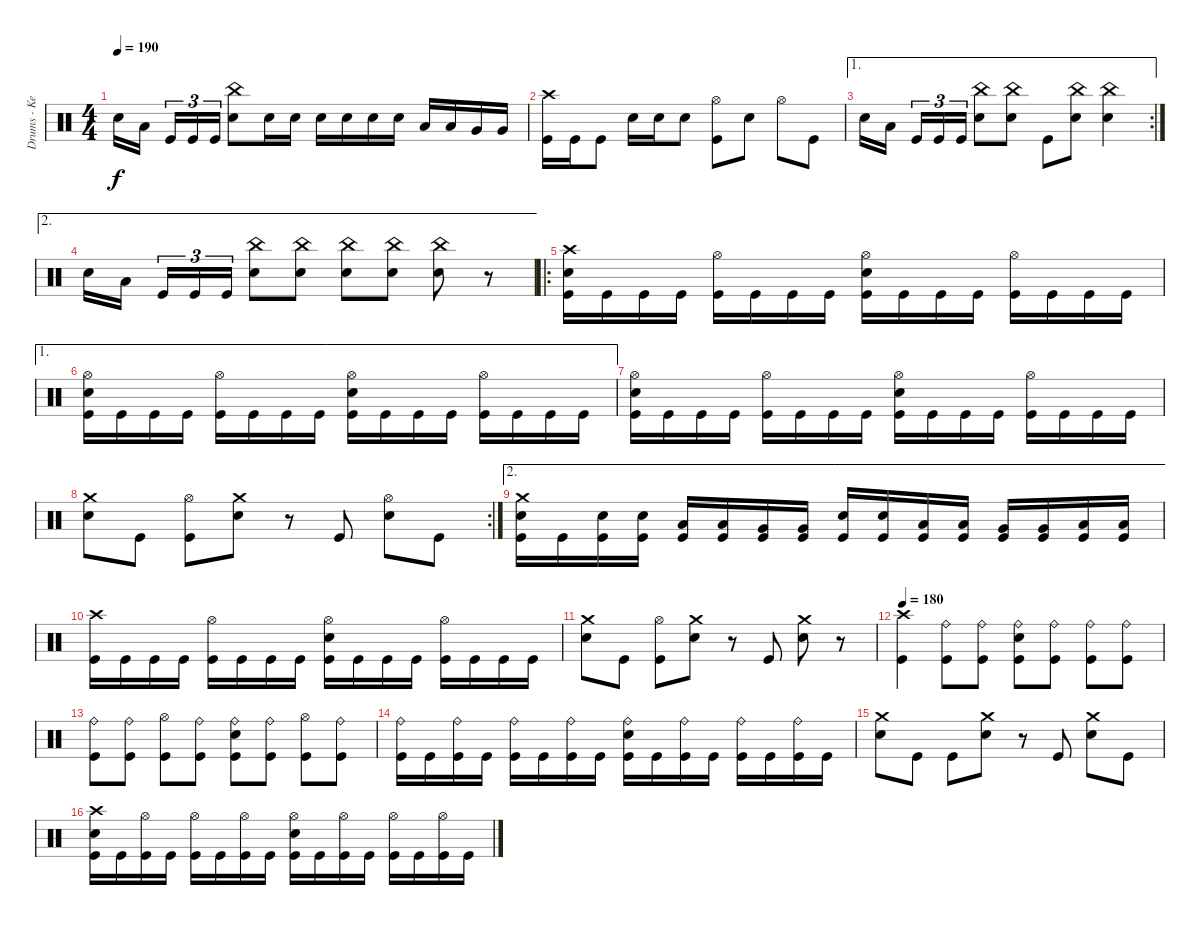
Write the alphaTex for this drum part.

\track ("Drums - Kevin" "Drums - Ke") {instrument percussion}
\staff {score}
\articulation defaults
\ts (4 4)
\tempo 190
\clef neutral
\ks c "Electric Snare (hit)".16{dy f} "Low Tom (hit)".16 "Kick (hit)".16{tu (3 2)} "Kick (hit)".16{tu (3 2)} "Kick (hit)".16{tu (3 2)}
("China (hit)" "Electric Snare (hit)").8 "Electric Snare (hit)".16 "Electric Snare (hit)".16 "Electric Snare (hit)".16 "Electric Snare (hit)".16 "Electric Snare (hit)".16 "Electric Snare (hit)".16 "Low Tom (hit)".16 "Low Tom (hit)".16 "Very Low Tom (hit)".16 "Very Low Tom (hit)".16 |
("Crash high (hit)" "Kick (hit)").16 "Kick (hit)".16 "Kick (hit)".8 "Electric Snare (hit)".16 "Electric Snare (hit)".16 "Electric Snare (hit)".8 ("Hi-Hat (open)" "Kick (hit)").8 "Electric Snare (hit)".8 "Hi-Hat (open)".8 "Kick (hit)".8 |
\ae 1
\rc 2 "Electric Snare (hit)".16 "Low Tom (hit)".16 "Kick (hit)".16{tu (3 2)} "Kick (hit)".16{tu (3 2)} "Kick (hit)".16{tu (3 2)}
("China (hit)" "Electric Snare (hit)").8 ("China (hit)" "Electric Snare (hit)").8 "Kick (hit)".8 ("China (hit)" "Electric Snare (hit)").8 ("China (hit)" "Electric Snare (hit)").4 |
\ae 2 "Electric Snare (hit)".16 "Low Tom (hit)".16 "Kick (hit)".16{tu (3 2)} "Kick (hit)".16{tu (3 2)} "Kick (hit)".16{tu (3 2)}
("China (hit)" "Electric Snare (hit)").8 ("China (hit)" "Electric Snare (hit)").8 ("China (hit)" "Electric Snare (hit)").8 ("China (hit)" "Electric Snare (hit)").8 ("China (hit)" "Electric Snare (hit)").8 r.8 |
\ro
("Crash high (hit)" "Electric Snare (hit)" "Kick (hit)").16 "Kick (hit)".16 "Kick (hit)".16 "Kick (hit)".16 ("Hi-Hat (open)" "Kick (hit)").16 "Kick (hit)".16 "Kick (hit)".16 "Kick (hit)".16 ("Hi-Hat (open)" "Electric Snare (hit)" "Kick (hit)").16 "Kick (hit)".16 "Kick (hit)".16 "Kick (hit)".16 ("Hi-Hat (open)" "Kick (hit)").16 "Kick (hit)".16 "Kick (hit)".16 "Kick (hit)".16 |
\ae 1
("Hi-Hat (open)" "Electric Snare (hit)" "Kick (hit)").16 "Kick (hit)".16 "Kick (hit)".16 "Kick (hit)".16 ("Hi-Hat (open)" "Kick (hit)").16 "Kick (hit)".16 "Kick (hit)".16 "Kick (hit)".16 ("Hi-Hat (open)" "Electric Snare (hit)" "Kick (hit)").16 "Kick (hit)".16 "Kick (hit)".16 "Kick (hit)".16 ("Hi-Hat (open)" "Kick (hit)").16 "Kick (hit)".16 "Kick (hit)".16 "Kick (hit)".16 |
("Hi-Hat (open)" "Electric Snare (hit)" "Kick (hit)").16 "Kick (hit)".16 "Kick (hit)".16 "Kick (hit)".16 ("Hi-Hat (open)" "Kick (hit)").16 "Kick (hit)".16 "Kick (hit)".16 "Kick (hit)".16 ("Hi-Hat (open)" "Electric Snare (hit)" "Kick (hit)").16 "Kick (hit)".16 "Kick (hit)".16 "Kick (hit)".16 ("Hi-Hat (open)" "Kick (hit)").16 "Kick (hit)".16 "Kick (hit)".16 "Kick (hit)".16 |
\rc 2
("Crash medium (hit)" "Electric Snare (hit)").8 "Kick (hit)".8 ("Hi-Hat (open)" "Kick (hit)").8 ("Crash medium (hit)" "Electric Snare (hit)").8 r.8 "Kick (hit)".8 ("Hi-Hat (open)" "Electric Snare (hit)").8 "Kick (hit)".8 |
\ae 2
("Crash medium (hit)" "Electric Snare (hit)" "Kick (hit)").16 "Kick (hit)".16 ("Electric Snare (hit)" "Kick (hit)").16 ("Electric Snare (hit)" "Kick (hit)").16 ("Low Tom (hit)" "Kick (hit)").16 ("Low Tom (hit)" "Kick (hit)").16 ("Very Low Tom (hit)" "Kick (hit)").16 ("Very Low Tom (hit)" "Kick (hit)").16 ("Electric Snare (hit)" "Kick (hit)").16 ("Electric Snare (hit)" "Kick (hit)").16 ("Low Tom (hit)" "Kick (hit)").16 ("Low Tom (hit)" "Kick (hit)").16 ("Very Low Tom (hit)" "Kick (hit)").16 ("Very Low Tom (hit)" "Kick (hit)").16 ("Low Floor Tom (hit)" "Kick (hit)").16 ("Low Floor Tom (hit)" "Kick (hit)").16 |
("Crash high (hit)" "Kick (hit)").16 "Kick (hit)".16 "Kick (hit)".16 "Kick (hit)".16 ("Hi-Hat (open)" "Kick (hit)").16 "Kick (hit)".16 "Kick (hit)".16 "Kick (hit)".16 ("Hi-Hat (open)" "Electric Snare (hit)" "Kick (hit)").16 "Kick (hit)".16 "Kick (hit)".16 "Kick (hit)".16 ("Hi-Hat (open)" "Kick (hit)").16 "Kick (hit)".16 "Kick (hit)".16 "Kick (hit)".16 |
("Crash medium (hit)" "Electric Snare (hit)").8 "Kick (hit)".8 ("Hi-Hat (open)" "Kick (hit)").8 ("Crash medium (hit)" "Electric Snare (hit)").8 r.8 "Kick (hit)".8 ("Crash medium (hit)" "Electric Snare (hit)").8 r.8 |
\tempo 180
("Crash high (hit)" "Kick (hit)").4 ("Ride (bell)" "Kick (hit)").8 ("Ride (bell)" "Kick (hit)").8 ("Ride (bell)" "Electric Snare (hit)" "Kick (hit)").8 ("Ride (bell)" "Kick (hit)").8 ("Ride (bell)" "Kick (hit)").8 ("Ride (bell)" "Kick (hit)").8 |
("Ride (bell)" "Kick (hit)").8 ("Ride (bell)" "Kick (hit)").8 ("Hi-Hat (open)" "Kick (hit)").8 ("Ride (bell)" "Kick (hit)").8 ("Ride (bell)" "Electric Snare (hit)" "Kick (hit)").8 ("Ride (bell)" "Kick (hit)").8 ("Hi-Hat (open)" "Kick (hit)").8 ("Ride (bell)" "Kick (hit)").8 |
("Ride (bell)" "Kick (hit)").16 "Kick (hit)".16 ("Ride (bell)" "Kick (hit)").16 "Kick (hit)".16 ("Ride (bell)" "Kick (hit)").16 "Kick (hit)".16 ("Ride (bell)" "Kick (hit)").16 "Kick (hit)".16 ("Ride (bell)" "Electric Snare (hit)" "Kick (hit)").16 "Kick (hit)".16 ("Ride (bell)" "Kick (hit)").16 "Kick (hit)".16 ("Ride (bell)" "Kick (hit)").16 "Kick (hit)".16 ("Ride (bell)" "Kick (hit)").16 "Kick (hit)".16 |
("Crash medium (hit)" "Electric Snare (hit)").8 "Kick (hit)".8 "Kick (hit)".8 ("Crash medium (hit)" "Electric Snare (hit)").8 r.8 "Kick (hit)".8 ("Crash medium (hit)" "Electric Snare (hit)").8 "Kick (hit)".8 |
("Crash high (hit)" "Electric Snare (hit)" "Kick (hit)").16 "Kick (hit)".16 ("Hi-Hat (open)" "Kick (hit)").16 "Kick (hit)".16 ("Hi-Hat (open)" "Kick (hit)").16 "Kick (hit)".16 ("Hi-Hat (open)" "Kick (hit)").16 "Kick (hit)".16 ("Hi-Hat (open)" "Electric Snare (hit)" "Kick (hit)").16 "Kick (hit)".16 ("Hi-Hat (open)" "Kick (hit)").16 "Kick (hit)".16 ("Hi-Hat (open)" "Kick (hit)").16 "Kick (hit)".16 ("Hi-Hat (open)" "Kick (hit)").16 "Kick (hit)".16
